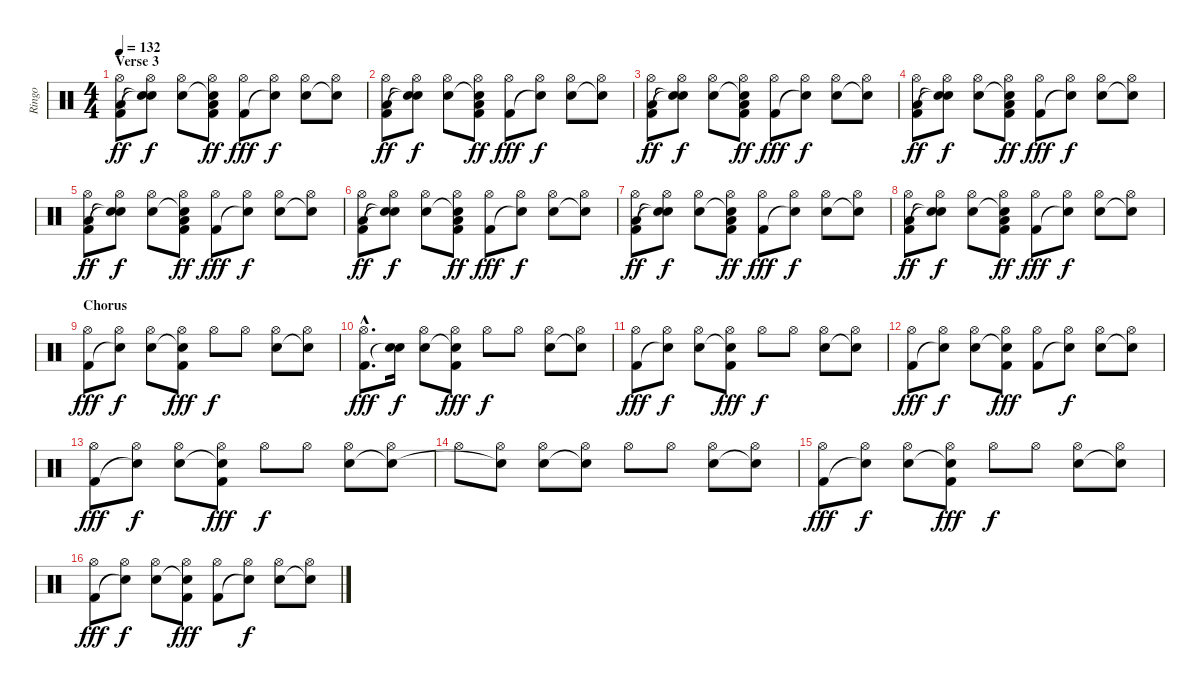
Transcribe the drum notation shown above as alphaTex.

\track ("Ringo" "Ringo") {instrument percussion}
\staff {score}
\articulation defaults
\ts (4 4)
\section ("" "Verse 3")
\tempo 132
\clef neutral
\ks c
("Hi-Hat (open)" "Kick (hit) 2" "Low Floor Tom (hit)").8{dy ff} ("Hi-Hat (open)" "Snare (hit)"{t} "Snare (hit)"{t}).8{dy f} ("Hi-Hat (open)" "Snare (hit) 2").8 ("Hi-Hat (open)" "Snare (hit)"{t} "Kick (hit) 2" "Low Floor Tom (hit)").8{dy ff} ("Hi-Hat (open)" "Kick (hit) 2").8{dy fff} ("Hi-Hat (open)" "Snare (hit)"{t}).8{dy f} ("Hi-Hat (open)" "Snare (hit) 2").8 ("Hi-Hat (open)" "Snare (hit)"{t}).8 |
("Hi-Hat (open)" "Kick (hit) 2" "Low Floor Tom (hit)").8{dy ff} ("Hi-Hat (open)" "Snare (hit)"{t} "Snare (hit)"{t}).8{dy f} ("Hi-Hat (open)" "Snare (hit) 2").8 ("Hi-Hat (open)" "Snare (hit)"{t} "Kick (hit) 2" "Low Floor Tom (hit)").8{dy ff} ("Hi-Hat (open)" "Kick (hit) 2").8{dy fff} ("Hi-Hat (open)" "Snare (hit)"{t}).8{dy f} ("Hi-Hat (open)" "Snare (hit) 2").8 ("Hi-Hat (open)" "Snare (hit)"{t}).8 |
("Hi-Hat (open)" "Kick (hit) 2" "Low Floor Tom (hit)").8{dy ff} ("Hi-Hat (open)" "Snare (hit)"{t} "Snare (hit)"{t}).8{dy f} ("Hi-Hat (open)" "Snare (hit) 2").8 ("Hi-Hat (open)" "Snare (hit)"{t} "Kick (hit) 2" "Low Floor Tom (hit)").8{dy ff} ("Hi-Hat (open)" "Kick (hit) 2").8{dy fff} ("Hi-Hat (open)" "Snare (hit)"{t}).8{dy f} ("Hi-Hat (open)" "Snare (hit) 2").8 ("Hi-Hat (open)" "Snare (hit)"{t}).8 |
("Hi-Hat (open)" "Kick (hit) 2" "Low Floor Tom (hit)").8{dy ff} ("Hi-Hat (open)" "Snare (hit)"{t} "Snare (hit)"{t}).8{dy f} ("Hi-Hat (open)" "Snare (hit) 2").8 ("Hi-Hat (open)" "Snare (hit)"{t} "Kick (hit) 2" "Low Floor Tom (hit)").8{dy ff} ("Hi-Hat (open)" "Kick (hit) 2").8{dy fff} ("Hi-Hat (open)" "Snare (hit)"{t}).8{dy f} ("Hi-Hat (open)" "Snare (hit) 2").8 ("Hi-Hat (open)" "Snare (hit)"{t}).8 |
("Hi-Hat (open)" "Kick (hit) 2" "Low Floor Tom (hit)").8{dy ff} ("Hi-Hat (open)" "Snare (hit)"{t} "Snare (hit)"{t}).8{dy f} ("Hi-Hat (open)" "Snare (hit) 2").8 ("Hi-Hat (open)" "Snare (hit)"{t} "Kick (hit) 2" "Low Floor Tom (hit)").8{dy ff} ("Hi-Hat (open)" "Kick (hit) 2").8{dy fff} ("Hi-Hat (open)" "Snare (hit)"{t}).8{dy f} ("Hi-Hat (open)" "Snare (hit) 2").8 ("Hi-Hat (open)" "Snare (hit)"{t}).8 |
("Hi-Hat (open)" "Kick (hit) 2" "Low Floor Tom (hit)").8{dy ff} ("Hi-Hat (open)" "Snare (hit)"{t} "Snare (hit)"{t}).8{dy f} ("Hi-Hat (open)" "Snare (hit) 2").8 ("Hi-Hat (open)" "Snare (hit)"{t} "Kick (hit) 2" "Low Floor Tom (hit)").8{dy ff} ("Hi-Hat (open)" "Kick (hit) 2").8{dy fff} ("Hi-Hat (open)" "Snare (hit)"{t}).8{dy f} ("Hi-Hat (open)" "Snare (hit) 2").8 ("Hi-Hat (open)" "Snare (hit)"{t}).8 |
("Hi-Hat (open)" "Kick (hit) 2" "Low Floor Tom (hit)").8{dy ff} ("Hi-Hat (open)" "Snare (hit)"{t} "Snare (hit)"{t}).8{dy f} ("Hi-Hat (open)" "Snare (hit) 2").8 ("Hi-Hat (open)" "Snare (hit)"{t} "Kick (hit) 2" "Low Floor Tom (hit)").8{dy ff} ("Hi-Hat (open)" "Kick (hit) 2").8{dy fff} ("Hi-Hat (open)" "Snare (hit)"{t}).8{dy f} ("Hi-Hat (open)" "Snare (hit) 2").8 ("Hi-Hat (open)" "Snare (hit)"{t}).8 |
("Hi-Hat (open)" "Kick (hit) 2" "Low Floor Tom (hit)").8{dy ff} ("Hi-Hat (open)" "Snare (hit)"{t} "Snare (hit)"{t}).8{dy f} ("Hi-Hat (open)" "Snare (hit) 2").8 ("Hi-Hat (open)" "Snare (hit)"{t} "Kick (hit) 2" "Low Floor Tom (hit)").8{dy ff} ("Hi-Hat (open)" "Kick (hit) 2").8{dy fff} ("Hi-Hat (open)" "Snare (hit)"{t}).8{dy f} ("Hi-Hat (open)" "Snare (hit) 2").8 ("Hi-Hat (open)" "Snare (hit)"{t}).8 |
\section ("" "Chorus")
("Hi-Hat (open)" "Kick (hit) 2").8{dy fff} ("Hi-Hat (open)" "Snare (hit)"{t}).8{dy f} ("Hi-Hat (open)" "Snare (hit) 2").8 ("Hi-Hat (open)" "Snare (hit)"{t} "Kick (hit) 2").8{dy fff} "Hi-Hat (open)".8{dy f} "Hi-Hat (open)".8 ("Hi-Hat (open)" "Snare (hit) 2").8 ("Hi-Hat (open)" "Snare (hit)"{t}).8 |
("Hi-Hat (open)"{hac} "Kick (hit) 2"{hac}).8{d dy fff} ("Snare (hit) 2" "Snare (hit)"{t}).16{dy f} ("Hi-Hat (open)" "Snare (hit) 2").8 ("Hi-Hat (open)" "Snare (hit)"{t} "Kick (hit) 2").8{dy fff} "Hi-Hat (open)".8{dy f} "Hi-Hat (open)".8 ("Hi-Hat (open)" "Snare (hit) 2").8 ("Hi-Hat (open)" "Snare (hit)"{t}).8 |
("Hi-Hat (open)" "Kick (hit) 2").8{dy fff} ("Hi-Hat (open)" "Snare (hit)"{t}).8{dy f} ("Hi-Hat (open)" "Snare (hit) 2").8 ("Hi-Hat (open)" "Snare (hit)"{t} "Kick (hit) 2").8{dy fff} "Hi-Hat (open)".8{dy f} "Hi-Hat (open)".8 ("Hi-Hat (open)" "Snare (hit) 2").8 ("Hi-Hat (open)" "Snare (hit)"{t}).8 |
("Hi-Hat (open)" "Kick (hit) 2").8{dy fff} ("Hi-Hat (open)" "Snare (hit)"{t}).8{dy f} ("Hi-Hat (open)" "Snare (hit) 2").8 ("Hi-Hat (open)" "Snare (hit)"{t} "Kick (hit) 2").8{dy fff} ("Hi-Hat (open)" "Kick (hit) 2").8 ("Hi-Hat (open)" "Snare (hit)"{t}).8{dy f} ("Hi-Hat (open)" "Snare (hit) 2").8 ("Hi-Hat (open)" "Snare (hit)"{t}).8 |
("Hi-Hat (open)" "Kick (hit) 2").8{dy fff} ("Hi-Hat (open)" "Snare (hit)"{t}).8{dy f} ("Hi-Hat (open)" "Snare (hit) 2").8 ("Hi-Hat (open)" "Snare (hit)"{t} "Kick (hit) 2").8{dy fff} "Hi-Hat (open)".8{dy f} "Hi-Hat (open)".8 ("Hi-Hat (open)" "Snare (hit) 2").8 ("Hi-Hat (open)" "Snare (hit)"{t}).8 |
"Hi-Hat (open)".8 ("Hi-Hat (open)" "Snare (hit)"{t}).8 ("Hi-Hat (open)" "Snare (hit) 2").8 ("Hi-Hat (open)" "Snare (hit)"{t}).8 "Hi-Hat (open)".8 "Hi-Hat (open)".8 ("Hi-Hat (open)" "Snare (hit) 2").8 ("Hi-Hat (open)" "Snare (hit)"{t}).8 |
("Hi-Hat (open)" "Kick (hit) 2").8{dy fff} ("Hi-Hat (open)" "Snare (hit)"{t}).8{dy f} ("Hi-Hat (open)" "Snare (hit) 2").8 ("Hi-Hat (open)" "Snare (hit)"{t} "Kick (hit) 2").8{dy fff} "Hi-Hat (open)".8{dy f} "Hi-Hat (open)".8 ("Hi-Hat (open)" "Snare (hit) 2").8 ("Hi-Hat (open)" "Snare (hit)"{t}).8 |
("Hi-Hat (open)" "Kick (hit) 2").8{dy fff} ("Hi-Hat (open)" "Snare (hit)"{t}).8{dy f} ("Hi-Hat (open)" "Snare (hit) 2").8 ("Hi-Hat (open)" "Snare (hit)"{t} "Kick (hit) 2").8{dy fff} ("Hi-Hat (open)" "Kick (hit) 2").8 ("Hi-Hat (open)" "Snare (hit)"{t}).8{dy f} ("Hi-Hat (open)" "Snare (hit) 2").8 ("Hi-Hat (open)" "Snare (hit)"{t}).8
